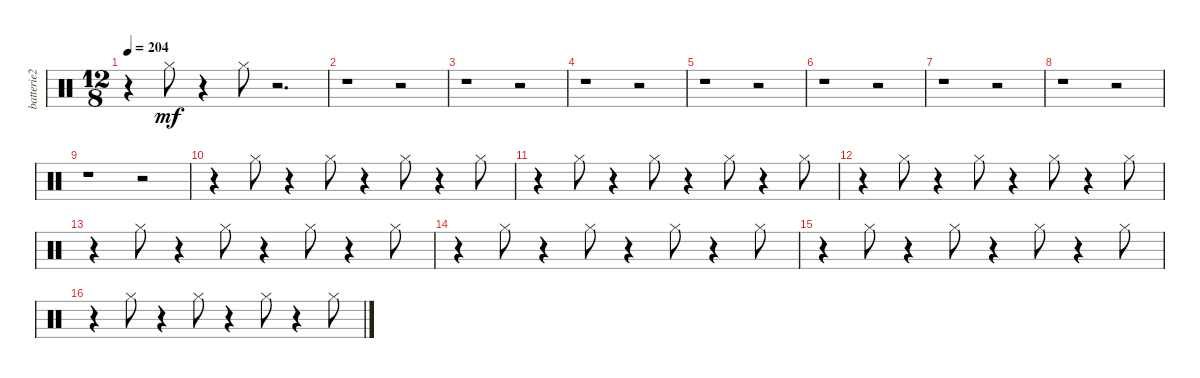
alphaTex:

\track ("batterie2" "batterie2") {instrument percussion}
\staff {score}
\articulation defaults
\ts (12 8)
\tempo 204
\clef neutral
\ks c
r.4{dy mf} "Hi-Hat (closed)".8 r.4 "Hi-Hat (closed)".8 r.2{d} |
r.1 r.2 |
r.1 r.2 |
r.1 r.2 |
r.1 r.2 |
r.1 r.2 |
r.1 r.2 |
r.1 r.2 |
r.1 r.2 |
r.4 "Hi-Hat (closed)".8 r.4 "Hi-Hat (closed)".8 r.4 "Hi-Hat (closed)".8 r.4 "Hi-Hat (closed)".8 |
r.4 "Hi-Hat (closed)".8 r.4 "Hi-Hat (closed)".8 r.4 "Hi-Hat (closed)".8 r.4 "Hi-Hat (closed)".8 |
r.4 "Hi-Hat (closed)".8 r.4 "Hi-Hat (closed)".8 r.4 "Hi-Hat (closed)".8 r.4 "Hi-Hat (closed)".8 |
r.4 "Hi-Hat (closed)".8 r.4 "Hi-Hat (closed)".8 r.4 "Hi-Hat (closed)".8 r.4 "Hi-Hat (closed)".8 |
r.4 "Hi-Hat (closed)".8 r.4 "Hi-Hat (closed)".8 r.4 "Hi-Hat (closed)".8 r.4 "Hi-Hat (closed)".8 |
r.4 "Hi-Hat (closed)".8 r.4 "Hi-Hat (closed)".8 r.4 "Hi-Hat (closed)".8 r.4 "Hi-Hat (closed)".8 |
r.4 "Hi-Hat (closed)".8 r.4 "Hi-Hat (closed)".8 r.4 "Hi-Hat (closed)".8 r.4 "Hi-Hat (closed)".8
